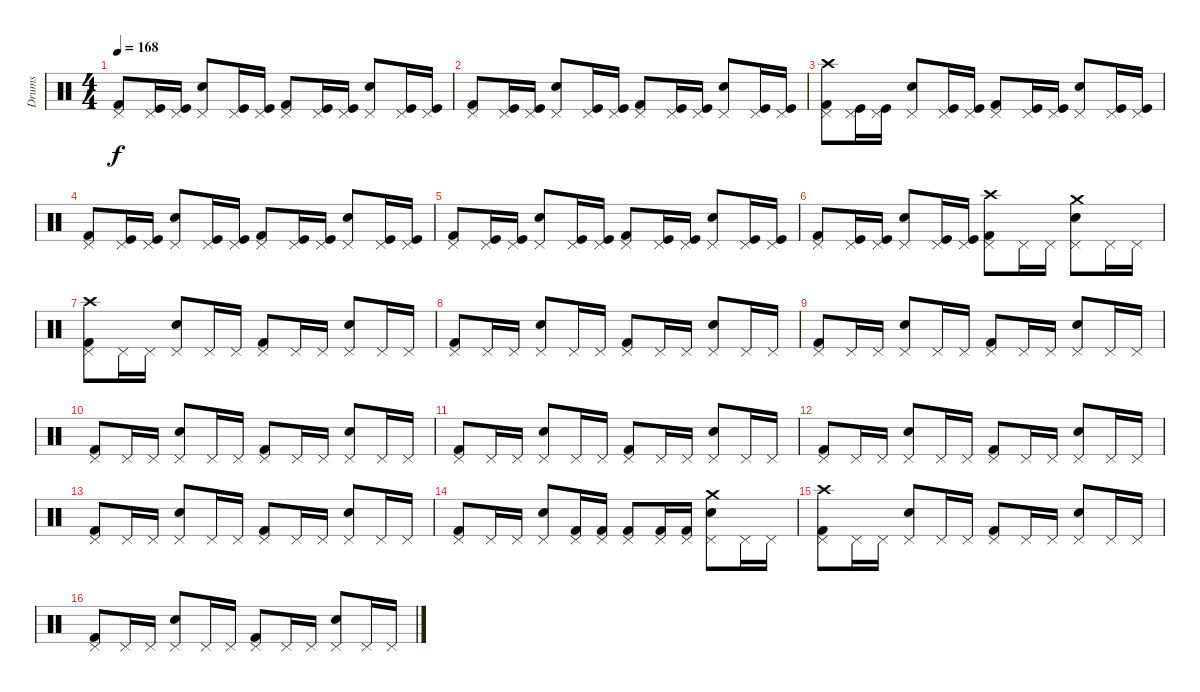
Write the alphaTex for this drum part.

\track ("Drums" "Drums") {instrument percussion}
\staff {score}
\articulation defaults
\ts (4 4)
\tempo 168
\clef neutral
\ks c
("Kick (hit) 2" "Pedal Hi-Hat (hit)").8{dy f} ("Kick (hit)" "Pedal Hi-Hat (hit)").16 ("Kick (hit)" "Pedal Hi-Hat (hit)").16 ("Snare (hit) 2" "Pedal Hi-Hat (hit)").8 ("Kick (hit)" "Pedal Hi-Hat (hit)").16 ("Kick (hit)" "Pedal Hi-Hat (hit)").16 ("Kick (hit) 2" "Pedal Hi-Hat (hit)").8 ("Kick (hit)" "Pedal Hi-Hat (hit)").16 ("Kick (hit)" "Pedal Hi-Hat (hit)").16 ("Snare (hit) 2" "Pedal Hi-Hat (hit)").8 ("Kick (hit)" "Pedal Hi-Hat (hit)").16 ("Kick (hit)" "Pedal Hi-Hat (hit)").16 |
("Kick (hit) 2" "Pedal Hi-Hat (hit)").8 ("Kick (hit)" "Pedal Hi-Hat (hit)").16 ("Kick (hit)" "Pedal Hi-Hat (hit)").16 ("Snare (hit) 2" "Pedal Hi-Hat (hit)").8 ("Kick (hit)" "Pedal Hi-Hat (hit)").16 ("Kick (hit)" "Pedal Hi-Hat (hit)").16 ("Kick (hit) 2" "Pedal Hi-Hat (hit)").8 ("Kick (hit)" "Pedal Hi-Hat (hit)").16 ("Kick (hit)" "Pedal Hi-Hat (hit)").16 ("Snare (hit) 2" "Pedal Hi-Hat (hit)").8 ("Kick (hit)" "Pedal Hi-Hat (hit)").16 ("Kick (hit)" "Pedal Hi-Hat (hit)").16 |
("Kick (hit) 2" "Pedal Hi-Hat (hit)" "Crash high (hit)").8 ("Kick (hit)" "Pedal Hi-Hat (hit)").16 ("Kick (hit)" "Pedal Hi-Hat (hit)").16 ("Snare (hit) 2" "Pedal Hi-Hat (hit)").8 ("Kick (hit)" "Pedal Hi-Hat (hit)").16 ("Kick (hit)" "Pedal Hi-Hat (hit)").16 ("Kick (hit) 2" "Pedal Hi-Hat (hit)").8 ("Kick (hit)" "Pedal Hi-Hat (hit)").16 ("Kick (hit)" "Pedal Hi-Hat (hit)").16 ("Snare (hit) 2" "Pedal Hi-Hat (hit)").8 ("Kick (hit)" "Pedal Hi-Hat (hit)").16 ("Kick (hit)" "Pedal Hi-Hat (hit)").16 |
("Kick (hit) 2" "Pedal Hi-Hat (hit)").8 ("Kick (hit)" "Pedal Hi-Hat (hit)").16 ("Kick (hit)" "Pedal Hi-Hat (hit)").16 ("Snare (hit) 2" "Pedal Hi-Hat (hit)").8 ("Kick (hit)" "Pedal Hi-Hat (hit)").16 ("Kick (hit)" "Pedal Hi-Hat (hit)").16 ("Kick (hit) 2" "Pedal Hi-Hat (hit)").8 ("Kick (hit)" "Pedal Hi-Hat (hit)").16 ("Kick (hit)" "Pedal Hi-Hat (hit)").16 ("Snare (hit) 2" "Pedal Hi-Hat (hit)").8 ("Kick (hit)" "Pedal Hi-Hat (hit)").16 ("Kick (hit)" "Pedal Hi-Hat (hit)").16 |
("Kick (hit) 2" "Pedal Hi-Hat (hit)").8 ("Kick (hit)" "Pedal Hi-Hat (hit)").16 ("Kick (hit)" "Pedal Hi-Hat (hit)").16 ("Snare (hit) 2" "Pedal Hi-Hat (hit)").8 ("Kick (hit)" "Pedal Hi-Hat (hit)").16 ("Kick (hit)" "Pedal Hi-Hat (hit)").16 ("Kick (hit) 2" "Pedal Hi-Hat (hit)").8 ("Kick (hit)" "Pedal Hi-Hat (hit)").16 ("Kick (hit)" "Pedal Hi-Hat (hit)").16 ("Snare (hit) 2" "Pedal Hi-Hat (hit)").8 ("Kick (hit)" "Pedal Hi-Hat (hit)").16 ("Kick (hit)" "Pedal Hi-Hat (hit)").16 |
("Kick (hit) 2" "Pedal Hi-Hat (hit)").8 ("Kick (hit)" "Pedal Hi-Hat (hit)").16 ("Kick (hit)" "Pedal Hi-Hat (hit)").16 ("Snare (hit) 2" "Pedal Hi-Hat (hit)").8 ("Kick (hit)" "Pedal Hi-Hat (hit)").16 ("Kick (hit)" "Pedal Hi-Hat (hit)").16 ("Kick (hit) 2" "Pedal Hi-Hat (hit)" "Crash high (hit)").8 "Pedal Hi-Hat (hit)".16 "Pedal Hi-Hat (hit)".16 ("Snare (hit) 2" "Pedal Hi-Hat (hit)" "Crash medium (hit)").8 "Pedal Hi-Hat (hit)".16 "Pedal Hi-Hat (hit)".16 |
("Kick (hit) 2" "Pedal Hi-Hat (hit)" "Crash high (hit)").8 "Pedal Hi-Hat (hit)".16 "Pedal Hi-Hat (hit)".16 ("Snare (hit) 2" "Pedal Hi-Hat (hit)").8 "Pedal Hi-Hat (hit)".16 "Pedal Hi-Hat (hit)".16 ("Kick (hit) 2" "Pedal Hi-Hat (hit)").8 "Pedal Hi-Hat (hit)".16 "Pedal Hi-Hat (hit)".16 ("Snare (hit) 2" "Pedal Hi-Hat (hit)").8 "Pedal Hi-Hat (hit)".16 "Pedal Hi-Hat (hit)".16 |
("Kick (hit) 2" "Pedal Hi-Hat (hit)").8 "Pedal Hi-Hat (hit)".16 "Pedal Hi-Hat (hit)".16 ("Snare (hit) 2" "Pedal Hi-Hat (hit)").8 "Pedal Hi-Hat (hit)".16 "Pedal Hi-Hat (hit)".16 ("Kick (hit) 2" "Pedal Hi-Hat (hit)").8 "Pedal Hi-Hat (hit)".16 "Pedal Hi-Hat (hit)".16 ("Snare (hit) 2" "Pedal Hi-Hat (hit)").8 "Pedal Hi-Hat (hit)".16 "Pedal Hi-Hat (hit)".16 |
("Kick (hit) 2" "Pedal Hi-Hat (hit)").8 "Pedal Hi-Hat (hit)".16 "Pedal Hi-Hat (hit)".16 ("Snare (hit) 2" "Pedal Hi-Hat (hit)").8 "Pedal Hi-Hat (hit)".16 "Pedal Hi-Hat (hit)".16 ("Kick (hit) 2" "Pedal Hi-Hat (hit)").8 "Pedal Hi-Hat (hit)".16 "Pedal Hi-Hat (hit)".16 ("Snare (hit) 2" "Pedal Hi-Hat (hit)").8 "Pedal Hi-Hat (hit)".16 "Pedal Hi-Hat (hit)".16 |
("Kick (hit) 2" "Pedal Hi-Hat (hit)").8 "Pedal Hi-Hat (hit)".16 "Pedal Hi-Hat (hit)".16 ("Snare (hit) 2" "Pedal Hi-Hat (hit)").8 "Pedal Hi-Hat (hit)".16 "Pedal Hi-Hat (hit)".16 ("Kick (hit) 2" "Pedal Hi-Hat (hit)").8 "Pedal Hi-Hat (hit)".16 "Pedal Hi-Hat (hit)".16 ("Snare (hit) 2" "Pedal Hi-Hat (hit)").8 "Pedal Hi-Hat (hit)".16 "Pedal Hi-Hat (hit)".16 |
("Kick (hit) 2" "Pedal Hi-Hat (hit)").8 "Pedal Hi-Hat (hit)".16 "Pedal Hi-Hat (hit)".16 ("Snare (hit) 2" "Pedal Hi-Hat (hit)").8 "Pedal Hi-Hat (hit)".16 "Pedal Hi-Hat (hit)".16 ("Kick (hit) 2" "Pedal Hi-Hat (hit)").8 "Pedal Hi-Hat (hit)".16 "Pedal Hi-Hat (hit)".16 ("Snare (hit) 2" "Pedal Hi-Hat (hit)").8 "Pedal Hi-Hat (hit)".16 "Pedal Hi-Hat (hit)".16 |
("Kick (hit) 2" "Pedal Hi-Hat (hit)").8 "Pedal Hi-Hat (hit)".16 "Pedal Hi-Hat (hit)".16 ("Snare (hit) 2" "Pedal Hi-Hat (hit)").8 "Pedal Hi-Hat (hit)".16 "Pedal Hi-Hat (hit)".16 ("Kick (hit) 2" "Pedal Hi-Hat (hit)").8 "Pedal Hi-Hat (hit)".16 "Pedal Hi-Hat (hit)".16 ("Snare (hit) 2" "Pedal Hi-Hat (hit)").8 "Pedal Hi-Hat (hit)".16 "Pedal Hi-Hat (hit)".16 |
("Kick (hit) 2" "Pedal Hi-Hat (hit)").8 "Pedal Hi-Hat (hit)".16 "Pedal Hi-Hat (hit)".16 ("Snare (hit) 2" "Pedal Hi-Hat (hit)").8 "Pedal Hi-Hat (hit)".16 "Pedal Hi-Hat (hit)".16 ("Kick (hit) 2" "Pedal Hi-Hat (hit)").8 "Pedal Hi-Hat (hit)".16 "Pedal Hi-Hat (hit)".16 ("Snare (hit) 2" "Pedal Hi-Hat (hit)").8 "Pedal Hi-Hat (hit)".16 "Pedal Hi-Hat (hit)".16 |
("Kick (hit) 2" "Pedal Hi-Hat (hit)").8 "Pedal Hi-Hat (hit)".16 "Pedal Hi-Hat (hit)".16 ("Snare (hit) 2" "Pedal Hi-Hat (hit)").8 ("Kick (hit) 2" "Pedal Hi-Hat (hit)").16 ("Kick (hit) 2" "Pedal Hi-Hat (hit)").16 ("Kick (hit) 2" "Pedal Hi-Hat (hit)").8 ("Kick (hit) 2" "Pedal Hi-Hat (hit)").16 ("Kick (hit) 2" "Pedal Hi-Hat (hit)").16 ("Snare (hit) 2" "Pedal Hi-Hat (hit)" "Crash medium (hit)").8 "Pedal Hi-Hat (hit)".16 "Pedal Hi-Hat (hit)".16 |
("Kick (hit) 2" "Pedal Hi-Hat (hit)" "Crash high (hit)").8 "Pedal Hi-Hat (hit)".16 "Pedal Hi-Hat (hit)".16 ("Snare (hit) 2" "Pedal Hi-Hat (hit)").8 "Pedal Hi-Hat (hit)".16 "Pedal Hi-Hat (hit)".16 ("Kick (hit) 2" "Pedal Hi-Hat (hit)").8 "Pedal Hi-Hat (hit)".16 "Pedal Hi-Hat (hit)".16 ("Snare (hit) 2" "Pedal Hi-Hat (hit)").8 "Pedal Hi-Hat (hit)".16 "Pedal Hi-Hat (hit)".16 |
("Kick (hit) 2" "Pedal Hi-Hat (hit)").8 "Pedal Hi-Hat (hit)".16 "Pedal Hi-Hat (hit)".16 ("Snare (hit) 2" "Pedal Hi-Hat (hit)").8 "Pedal Hi-Hat (hit)".16 "Pedal Hi-Hat (hit)".16 ("Kick (hit) 2" "Pedal Hi-Hat (hit)").8 "Pedal Hi-Hat (hit)".16 "Pedal Hi-Hat (hit)".16 ("Snare (hit) 2" "Pedal Hi-Hat (hit)").8 "Pedal Hi-Hat (hit)".16 "Pedal Hi-Hat (hit)".16
